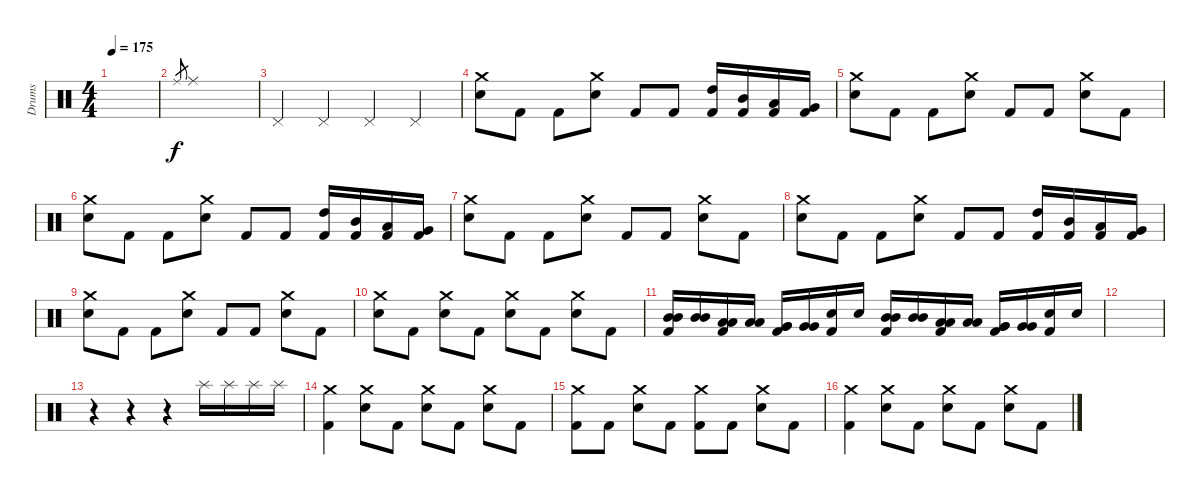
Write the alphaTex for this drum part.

\track ("Drums" "Drums") {instrument percussion}
\staff {score}
\articulation defaults
\ts (4 4)
\tempo 175
\clef neutral
\ks c
|
"Ride (middle)".8{gr} "Ride (middle)".1 |
"Pedal Hi-Hat (hit)".4 "Pedal Hi-Hat (hit)".4 "Pedal Hi-Hat (hit)".4 "Pedal Hi-Hat (hit)".4 |
("Electric Snare (hit)" "Crash medium (hit)").8 "Kick (hit) 2".8 "Kick (hit) 2".8 ("Electric Snare (hit)" "Crash medium (hit)").8 "Kick (hit) 2".8 "Kick (hit) 2".8 ("Kick (hit) 2" "High Tom (hit)").16 ("Kick (hit) 2" "Mid Tom (hit)").16 ("Kick (hit) 2" "Low Tom (hit)").16 ("Kick (hit) 2" "Very Low Tom (hit)").16 |
("Electric Snare (hit)" "Crash medium (hit)").8 "Kick (hit) 2".8 "Kick (hit) 2".8 ("Electric Snare (hit)" "Crash medium (hit)").8 "Kick (hit) 2".8 "Kick (hit) 2".8 ("Electric Snare (hit)" "Crash medium (hit)").8 "Kick (hit) 2".8 |
("Electric Snare (hit)" "Crash medium (hit)").8 "Kick (hit) 2".8 "Kick (hit) 2".8 ("Electric Snare (hit)" "Crash medium (hit)").8 "Kick (hit) 2".8 "Kick (hit) 2".8 ("Kick (hit) 2" "High Tom (hit)").16 ("Kick (hit) 2" "Mid Tom (hit)").16 ("Kick (hit) 2" "Low Tom (hit)").16 ("Kick (hit) 2" "Very Low Tom (hit)").16 |
("Electric Snare (hit)" "Crash medium (hit)").8 "Kick (hit) 2".8 "Kick (hit) 2".8 ("Electric Snare (hit)" "Crash medium (hit)").8 "Kick (hit) 2".8 "Kick (hit) 2".8 ("Electric Snare (hit)" "Crash medium (hit)").8 "Kick (hit) 2".8 |
("Electric Snare (hit)" "Crash medium (hit)").8 "Kick (hit) 2".8 "Kick (hit) 2".8 ("Electric Snare (hit)" "Crash medium (hit)").8 "Kick (hit) 2".8 "Kick (hit) 2".8 ("Kick (hit) 2" "High Tom (hit)").16 ("Kick (hit) 2" "Mid Tom (hit)").16 ("Kick (hit) 2" "Low Tom (hit)").16 ("Kick (hit) 2" "Very Low Tom (hit)").16 |
("Electric Snare (hit)" "Crash medium (hit)").8 "Kick (hit) 2".8 "Kick (hit) 2".8 ("Electric Snare (hit)" "Crash medium (hit)").8 "Kick (hit) 2".8 "Kick (hit) 2".8 ("Electric Snare (hit)" "Crash medium (hit)").8 "Kick (hit) 2".8 |
("Electric Snare (hit)" "Crash medium (hit)").8 "Kick (hit) 2".8 ("Electric Snare (hit)" "Crash medium (hit)").8 "Kick (hit) 2".8 ("Electric Snare (hit)" "Crash medium (hit)").8 "Kick (hit) 2".8 ("Electric Snare (hit)" "Crash medium (hit)").8 "Kick (hit) 2".8 |
("Kick (hit) 2" "Mid Tom (hit)" "Mid Tom (hit)").16 ("Mid Tom (hit)" "Mid Tom (hit)").16 ("Kick (hit) 2" "Low Tom (hit)" "Low Tom (hit)").16 ("Low Tom (hit)" "Low Tom (hit)").16 ("Kick (hit) 2" "Very Low Tom (hit)" "Very Low Tom (hit)").16 ("Very Low Tom (hit)" "Very Low Tom (hit)").16 ("Kick (hit) 2" "Electric Snare (hit)").16 "Electric Snare (hit)".16 ("Kick (hit) 2" "Mid Tom (hit)" "Mid Tom (hit)").16 ("Mid Tom (hit)" "Mid Tom (hit)").16 ("Kick (hit) 2" "Low Tom (hit)" "Low Tom (hit)").16 ("Low Tom (hit)" "Low Tom (hit)").16 ("Kick (hit) 2" "Very Low Tom (hit)" "Very Low Tom (hit)").16 ("Very Low Tom (hit)" "Very Low Tom (hit)").16 ("Kick (hit) 2" "Electric Snare (hit)").16 "Electric Snare (hit)".16 |
|
r.4 r.4 r.4 "Splash (hit)".16 "Splash (hit)".16 "Splash (hit)".16 "Splash (hit)".16 |
("Kick (hit) 2" "Crash medium (hit)").4 ("Electric Snare (hit)" "Crash medium (hit)").8 "Kick (hit) 2".8 ("Electric Snare (hit)" "Crash medium (hit)").8 "Kick (hit) 2".8 ("Electric Snare (hit)" "Crash medium (hit)").8 "Kick (hit) 2".8 |
("Kick (hit) 2" "Crash medium (hit)").8 "Kick (hit) 2".8 ("Electric Snare (hit)" "Crash medium (hit)").8 "Kick (hit) 2".8 ("Kick (hit) 2" "Crash medium (hit)").8 "Kick (hit) 2".8 ("Electric Snare (hit)" "Crash medium (hit)").8 "Kick (hit) 2".8 |
("Kick (hit) 2" "Crash medium (hit)").4 ("Electric Snare (hit)" "Crash medium (hit)").8 "Kick (hit) 2".8 ("Electric Snare (hit)" "Crash medium (hit)").8 "Kick (hit) 2".8 ("Electric Snare (hit)" "Crash medium (hit)").8 "Kick (hit) 2".8
